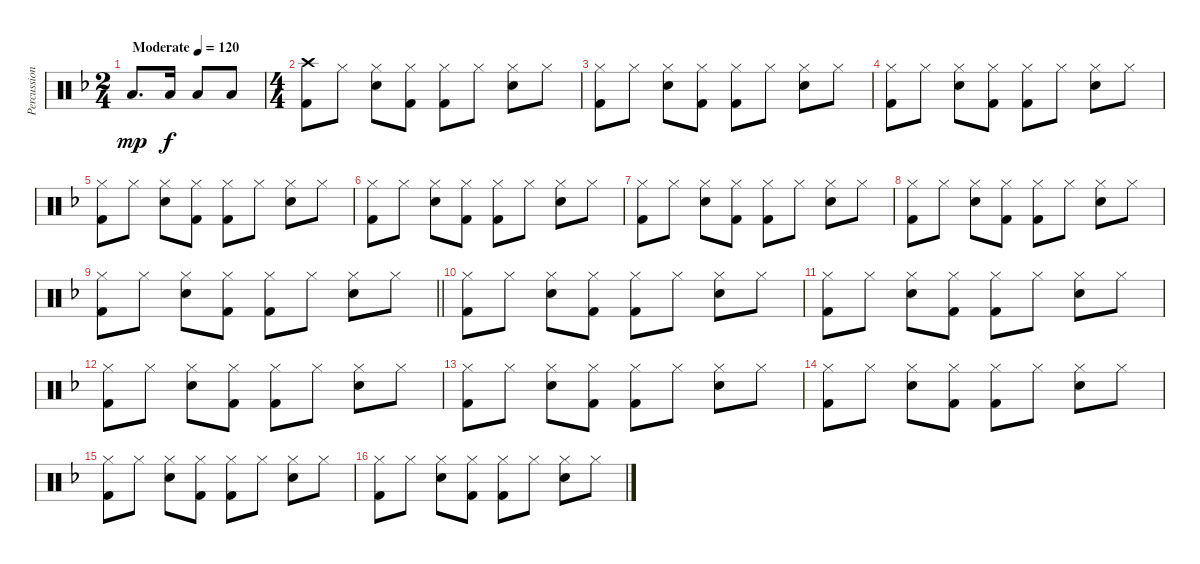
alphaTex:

\track ("Percussion" "Percussion") {instrument percussion}
\staff {score}
\articulation defaults
\ts (2 4)
\tempo (120 "Moderate")
\clef neutral
\ks f "Low Tom (hit)".8{d dy mp} "Low Floor Tom (hit)".16{dy f} "Low Floor Tom (hit)".8 "Low Floor Tom (hit)".8
|
\ts (4 4)
("Crash high (hit)" "Kick (hit) 2").8 "Hi-Hat (closed)".8 ("Hi-Hat (closed)" "Snare (hit) 2").8 ("Hi-Hat (closed)" "Kick (hit) 2").8 ("Hi-Hat (closed)" "Kick (hit) 2").8 "Hi-Hat (closed)".8 ("Hi-Hat (closed)" "Snare (hit) 2").8 "Hi-Hat (closed)".8 |
("Hi-Hat (closed)" "Kick (hit) 2").8 "Hi-Hat (closed)".8 ("Hi-Hat (closed)" "Snare (hit) 2").8 ("Hi-Hat (closed)" "Kick (hit) 2").8 ("Hi-Hat (closed)" "Kick (hit) 2").8 "Hi-Hat (closed)".8 ("Hi-Hat (closed)" "Snare (hit) 2").8 "Hi-Hat (closed)".8 |
("Hi-Hat (closed)" "Kick (hit) 2").8 "Hi-Hat (closed)".8 ("Hi-Hat (closed)" "Snare (hit) 2").8 ("Hi-Hat (closed)" "Kick (hit) 2").8 ("Hi-Hat (closed)" "Kick (hit) 2").8 "Hi-Hat (closed)".8 ("Hi-Hat (closed)" "Snare (hit) 2").8 "Hi-Hat (closed)".8 |
("Hi-Hat (closed)" "Kick (hit) 2").8 "Hi-Hat (closed)".8 ("Hi-Hat (closed)" "Snare (hit) 2").8 ("Hi-Hat (closed)" "Kick (hit) 2").8 ("Hi-Hat (closed)" "Kick (hit) 2").8 "Hi-Hat (closed)".8 ("Hi-Hat (closed)" "Snare (hit) 2").8 "Hi-Hat (closed)".8 |
("Hi-Hat (closed)" "Kick (hit) 2").8 "Hi-Hat (closed)".8 ("Hi-Hat (closed)" "Snare (hit) 2").8 ("Hi-Hat (closed)" "Kick (hit) 2").8 ("Hi-Hat (closed)" "Kick (hit) 2").8 "Hi-Hat (closed)".8 ("Hi-Hat (closed)" "Snare (hit) 2").8 "Hi-Hat (closed)".8 |
("Hi-Hat (closed)" "Kick (hit) 2").8 "Hi-Hat (closed)".8 ("Hi-Hat (closed)" "Snare (hit) 2").8 ("Hi-Hat (closed)" "Kick (hit) 2").8 ("Hi-Hat (closed)" "Kick (hit) 2").8 "Hi-Hat (closed)".8 ("Hi-Hat (closed)" "Snare (hit) 2").8 "Hi-Hat (closed)".8 |
("Hi-Hat (closed)" "Kick (hit) 2").8 "Hi-Hat (closed)".8 ("Hi-Hat (closed)" "Snare (hit) 2").8 ("Hi-Hat (closed)" "Kick (hit) 2").8 ("Hi-Hat (closed)" "Kick (hit) 2").8 "Hi-Hat (closed)".8 ("Hi-Hat (closed)" "Snare (hit) 2").8 "Hi-Hat (closed)".8 |
\barLineRight lightlight
("Hi-Hat (closed)" "Kick (hit) 2").8 "Hi-Hat (closed)".8 ("Hi-Hat (closed)" "Snare (hit) 2").8 ("Hi-Hat (closed)" "Kick (hit) 2").8 ("Hi-Hat (closed)" "Kick (hit) 2").8 "Hi-Hat (closed)".8 ("Hi-Hat (closed)" "Snare (hit) 2").8 "Hi-Hat (closed)".8 |
("Hi-Hat (closed)" "Kick (hit) 2").8 "Hi-Hat (closed)".8 ("Hi-Hat (closed)" "Snare (hit) 2").8 ("Hi-Hat (closed)" "Kick (hit) 2").8 ("Hi-Hat (closed)" "Kick (hit) 2").8 "Hi-Hat (closed)".8 ("Hi-Hat (closed)" "Snare (hit) 2").8 "Hi-Hat (closed)".8 |
("Hi-Hat (closed)" "Kick (hit) 2").8 "Hi-Hat (closed)".8 ("Hi-Hat (closed)" "Snare (hit) 2").8 ("Hi-Hat (closed)" "Kick (hit) 2").8 ("Hi-Hat (closed)" "Kick (hit) 2").8 "Hi-Hat (closed)".8 ("Hi-Hat (closed)" "Snare (hit) 2").8 "Hi-Hat (closed)".8 |
("Hi-Hat (closed)" "Kick (hit) 2").8 "Hi-Hat (closed)".8 ("Hi-Hat (closed)" "Snare (hit) 2").8 ("Hi-Hat (closed)" "Kick (hit) 2").8 ("Hi-Hat (closed)" "Kick (hit) 2").8 "Hi-Hat (closed)".8 ("Hi-Hat (closed)" "Snare (hit) 2").8 "Hi-Hat (closed)".8 |
("Hi-Hat (closed)" "Kick (hit) 2").8 "Hi-Hat (closed)".8 ("Hi-Hat (closed)" "Snare (hit) 2").8 ("Hi-Hat (closed)" "Kick (hit) 2").8 ("Hi-Hat (closed)" "Kick (hit) 2").8 "Hi-Hat (closed)".8 ("Hi-Hat (closed)" "Snare (hit) 2").8 "Hi-Hat (closed)".8 |
("Hi-Hat (closed)" "Kick (hit) 2").8 "Hi-Hat (closed)".8 ("Hi-Hat (closed)" "Snare (hit) 2").8 ("Hi-Hat (closed)" "Kick (hit) 2").8 ("Hi-Hat (closed)" "Kick (hit) 2").8 "Hi-Hat (closed)".8 ("Hi-Hat (closed)" "Snare (hit) 2").8 "Hi-Hat (closed)".8 |
("Hi-Hat (closed)" "Kick (hit) 2").8 "Hi-Hat (closed)".8 ("Hi-Hat (closed)" "Snare (hit) 2").8 ("Hi-Hat (closed)" "Kick (hit) 2").8 ("Hi-Hat (closed)" "Kick (hit) 2").8 "Hi-Hat (closed)".8 ("Hi-Hat (closed)" "Snare (hit) 2").8 "Hi-Hat (closed)".8 |
("Hi-Hat (closed)" "Kick (hit) 2").8 "Hi-Hat (closed)".8 ("Hi-Hat (closed)" "Snare (hit) 2").8 ("Hi-Hat (closed)" "Kick (hit) 2").8 ("Hi-Hat (closed)" "Kick (hit) 2").8 "Hi-Hat (closed)".8 ("Hi-Hat (closed)" "Snare (hit) 2").8 "Hi-Hat (closed)".8
